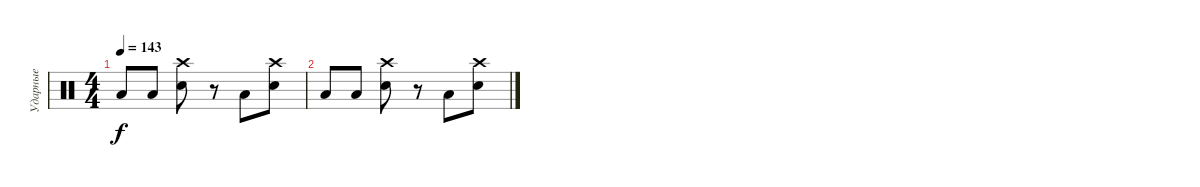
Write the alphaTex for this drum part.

\track ("Ударные" "Ударные") {instrument percussion}
\staff {score}
\articulation defaults
\ts (4 4)
\tempo 143
\clef neutral
\ks c "Low Tom (hit)".8{dy f} "Low Tom (hit)".8
("Crash high (hit)" "Snare (hit) 2").8 r.8 "Low Tom (hit)".8 ("Crash high (hit)" "Snare (hit) 2").8 |
"Low Tom (hit)".8{volume 8} "Low Tom (hit)".8 ("Crash high (hit)" "Snare (hit) 2").8 r.8 "Low Tom (hit)".8 ("Crash high (hit)" "Snare (hit) 2").8
